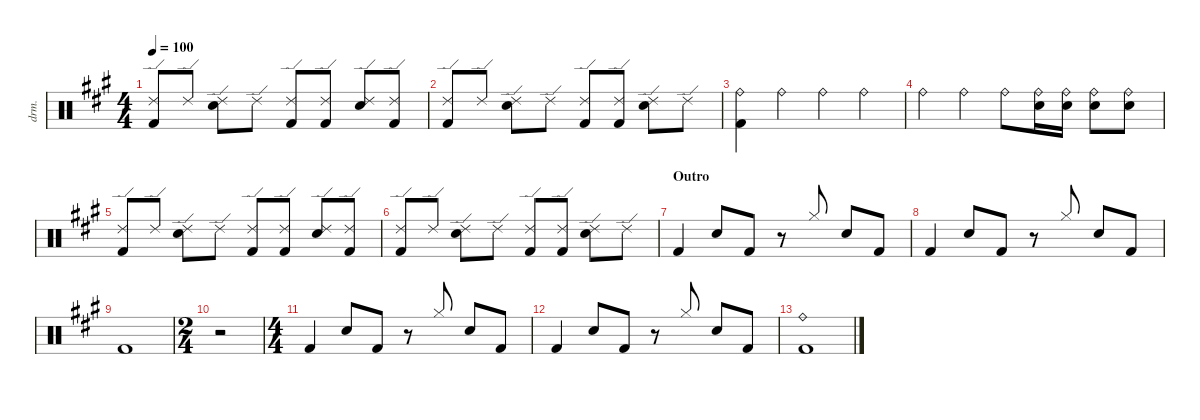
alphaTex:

\defaultSystemsLayout 4
\hideDynamics
\bracketExtendMode nobrackets
\otherSystemsTrackNameOrientation horizontal
\track ("Drums" "drm.") {instrument percussion}
\staff {score}
\articulation defaults
\ts (4 4)
\tempo 100
\clef neutral
\ks a
("Ride (edge) 2"{acc forcenatural} "Kick (hit) 2"{acc forcenatural}).8{dy f beam Up} "Ride (edge) 2"{acc forcenatural}.8{beam Up} ("Ride (edge) 2"{acc forcenatural} "Snare (hit) 2"{acc forcenatural}).8{beam Down} "Ride (edge) 2"{acc forcenatural}.8{beam Down} ("Ride (edge) 2"{acc forcenatural} "Kick (hit) 2"{acc forcenatural}).8{beam Up} ("Ride (edge) 2"{acc forcenatural} "Kick (hit) 2"{acc forcenatural}).8{beam Up} ("Ride (edge) 2"{acc forcenatural} "Snare (hit) 2"{acc forcenatural}).8{beam Up} ("Ride (edge) 2"{acc forcenatural} "Kick (hit) 2"{acc forcenatural}).8{beam Up} |
("Ride (edge) 2"{acc forcenatural} "Kick (hit) 2"{acc forcenatural}).8{beam Up} "Ride (edge) 2"{acc forcenatural}.8{beam Up} ("Ride (edge) 2"{acc forcenatural} "Snare (hit) 2"{acc forcenatural}).8{beam Down} "Ride (edge) 2"{acc forcenatural}.8{beam Down} ("Ride (edge) 2"{acc forcenatural} "Kick (hit) 2"{acc forcenatural}).8{beam Up} ("Ride (edge) 2"{acc forcenatural} "Kick (hit) 2"{acc forcenatural}).8{beam Up} ("Ride (edge) 2"{acc forcenatural} "Snare (hit) 2"{acc forcenatural}).8{beam Down} "Ride (edge) 2"{acc forcenatural}.8{beam Down} |
("Ride (bell)"{acc forcenatural} "Kick (hit) 2"{acc forcenatural}).4{beam Down} "Ride (bell)"{acc forcenatural}.4{beam Down} "Ride (bell)"{acc forcenatural}.4{beam Down} "Ride (bell)"{acc forcenatural}.4{beam Down} |
"Ride (bell)"{acc forcenatural}.4{beam Down} "Ride (bell)"{acc forcenatural}.4{beam Down} "Ride (bell)"{acc forcenatural}.8{beam Down} ("Ride (bell)"{acc forcenatural} "Snare (hit) 2"{acc forcenatural}).16{beam Down} ("Ride (bell)"{acc forcenatural} "Snare (hit) 2"{acc forcenatural}).16{beam Down} ("Ride (bell)"{acc forcenatural} "Snare (hit) 2"{acc forcenatural}).8{beam Down} ("Ride (bell)"{acc forcenatural} "Snare (hit) 2"{acc forcenatural}).8{beam Down} |
("Ride (edge) 2"{acc forcenatural} "Kick (hit) 2"{acc forcenatural}).8{beam Up} "Ride (edge) 2"{acc forcenatural}.8{beam Up} ("Ride (edge) 2"{acc forcenatural} "Snare (hit) 2"{acc forcenatural}).8{beam Down} "Ride (edge) 2"{acc forcenatural}.8{beam Down} ("Ride (edge) 2"{acc forcenatural} "Kick (hit) 2"{acc forcenatural}).8{beam Up} ("Ride (edge) 2"{acc forcenatural} "Kick (hit) 2"{acc forcenatural}).8{beam Up} ("Ride (edge) 2"{acc forcenatural} "Snare (hit) 2"{acc forcenatural}).8{beam Up} ("Ride (edge) 2"{acc forcenatural} "Kick (hit) 2"{acc forcenatural}).8{beam Up} |
("Ride (edge) 2"{acc forcenatural} "Kick (hit) 2"{acc forcenatural}).8{beam Up} "Ride (edge) 2"{acc forcenatural}.8{beam Up} ("Ride (edge) 2"{acc forcenatural} "Snare (hit) 2"{acc forcenatural}).8{beam Down} "Ride (edge) 2"{acc forcenatural}.8{beam Down} ("Ride (edge) 2"{acc forcenatural} "Kick (hit) 2"{acc forcenatural}).8{beam Up} ("Ride (edge) 2"{acc forcenatural} "Kick (hit) 2"{acc forcenatural}).8{beam Up} ("Ride (edge) 2"{acc forcenatural} "Snare (hit) 2"{acc forcenatural}).8{beam Down} "Ride (edge) 2"{acc forcenatural}.8{beam Down} |
\section ("" "Outro")
"Kick (hit) 2"{acc forcenatural}.4{beam Up} "Snare (hit) 2"{acc forcenatural}.8{beam Up} "Kick (hit) 2"{acc forcenatural}.8{beam Up} r.8{beam Up} "Hi-Hat (closed)"{acc forcenatural}.8{beam Down} "Snare (hit) 2"{acc forcenatural}.8{beam Up} "Kick (hit) 2"{acc forcenatural}.8{beam Up} |
"Kick (hit) 2"{acc forcenatural}.4{beam Up} "Snare (hit) 2"{acc forcenatural}.8{beam Up} "Kick (hit) 2"{acc forcenatural}.8{beam Up} r.8{beam Up} "Hi-Hat (closed)"{acc forcenatural}.8{beam Down} "Snare (hit) 2"{acc forcenatural}.8{beam Up} "Kick (hit) 2"{acc forcenatural}.8{beam Up} |
"Kick (hit) 2"{acc forcenatural}.1{beam Up} |
\ts (2 4)
r.2{beam Down} |
\ts (4 4)
"Kick (hit) 2"{acc forcenatural}.4{beam Up} "Snare (hit) 2"{acc forcenatural}.8{beam Up} "Kick (hit) 2"{acc forcenatural}.8{beam Up} r.8{beam Up} "Hi-Hat (closed)"{acc forcenatural}.8{beam Down} "Snare (hit) 2"{acc forcenatural}.8{beam Up} "Kick (hit) 2"{acc forcenatural}.8{beam Up} |
"Kick (hit) 2"{acc forcenatural}.4{beam Up} "Snare (hit) 2"{acc forcenatural}.8{beam Up} "Kick (hit) 2"{acc forcenatural}.8{beam Up} r.8{beam Up} "Hi-Hat (closed)"{acc forcenatural}.8{beam Down} "Snare (hit) 2"{acc forcenatural}.8{beam Up} "Kick (hit) 2"{acc forcenatural}.8{beam Up} |
("Ride (bell)"{acc forcenatural} "Kick (hit) 2"{acc forcenatural}).1{beam Down}
